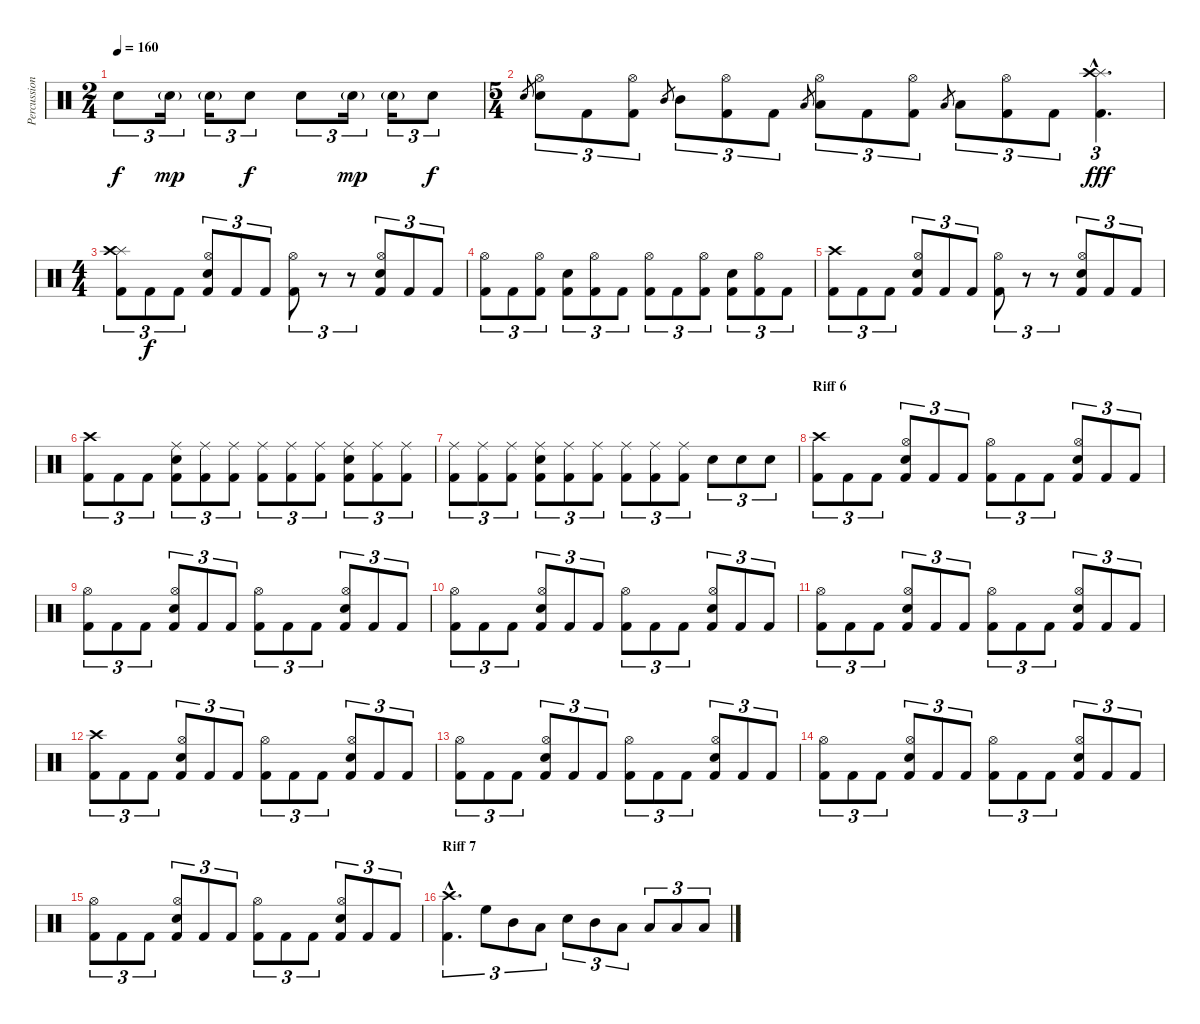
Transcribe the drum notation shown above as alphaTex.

\track ("Percussion" "Percussion") {instrument percussion}
\staff {score}
\articulation defaults
\ts (2 4)
\tempo 160
\clef neutral
\ks c "Electric Snare (hit)".8{tu (3 2) dy f} "Electric Snare (hit)"{g}.16{tu (3 2) dy mp} "Electric Snare (hit)"{g}.16{tu (3 2)} "Electric Snare (hit)".8{tu (3 2) dy f} "Electric Snare (hit)".8{tu (3 2)} "Electric Snare (hit)"{g}.16{tu (3 2) dy mp} "Electric Snare (hit)"{g}.16{tu (3 2)} "Electric Snare (hit)".8{tu (3 2) dy f}
|
\ts (5 4)
"Electric Snare (hit)".8{gr} ("Hi-Hat (open)" "Electric Snare (hit)").8{tu (3 2)} "Kick (hit) 2".8{tu (3 2)} ("Hi-Hat (open)" "Kick (hit) 2").8{tu (3 2)} "Mid Tom (hit)".8{gr} "Mid Tom (hit)".8{tu (3 2)} ("Hi-Hat (open)" "Kick (hit) 2").8{tu (3 2)} "Kick (hit) 2".8{tu (3 2)} "Low Tom (hit)".8{gr} ("Hi-Hat (open)" "Low Tom (hit)").8{tu (3 2)} "Kick (hit) 2".8{tu (3 2)} ("Hi-Hat (open)" "Kick (hit) 2").8{tu (3 2)} "Low Floor Tom (hit)".8{gr} "Low Floor Tom (hit)".8{tu (3 2)} ("Hi-Hat (open)" "Kick (hit) 2").8{tu (3 2)} "Kick (hit) 2".8{tu (3 2)} ("Splash (hit)"{hac} "Crash high (hit)"{hac} "Kick (hit) 2"{hac}).4{d tu (3 2) dy fff} |
\ts (4 4)
("Splash (hit)" "Crash high (hit)" "Kick (hit) 2").8{tu (3 2)} "Kick (hit) 2".8{tu (3 2) dy f} "Kick (hit) 2".8{tu (3 2)} ("Hi-Hat (open)" "Electric Snare (hit)" "Kick (hit) 2").8{tu (3 2)} "Kick (hit) 2".8{tu (3 2)} "Kick (hit) 2".8{tu (3 2)} ("Hi-Hat (open)" "Kick (hit) 2").8{tu (3 2)} r.8{tu (3 2)} r.8{tu (3 2)} ("Hi-Hat (open)" "Electric Snare (hit)" "Kick (hit) 2").8{tu (3 2)} "Kick (hit) 2".8{tu (3 2)} "Kick (hit) 2".8{tu (3 2)} |
("Hi-Hat (open)" "Kick (hit) 2").8{tu (3 2)} "Kick (hit) 2".8{tu (3 2)} ("Hi-Hat (open)" "Kick (hit) 2").8{tu (3 2)} ("Electric Snare (hit)" "Kick (hit) 2").8{tu (3 2)} ("Hi-Hat (open)" "Kick (hit) 2").8{tu (3 2)} "Kick (hit) 2".8{tu (3 2)} ("Hi-Hat (open)" "Kick (hit) 2").8{tu (3 2)} "Kick (hit) 2".8{tu (3 2)} ("Hi-Hat (open)" "Kick (hit) 2").8{tu (3 2)} ("Electric Snare (hit)" "Kick (hit) 2").8{tu (3 2)} ("Hi-Hat (open)" "Kick (hit) 2").8{tu (3 2)} "Kick (hit) 2".8{tu (3 2)} |
("Crash high (hit)" "Kick (hit) 2").8{tu (3 2)} "Kick (hit) 2".8{tu (3 2)} "Kick (hit) 2".8{tu (3 2)} ("Hi-Hat (open)" "Electric Snare (hit)" "Kick (hit) 2").8{tu (3 2)} "Kick (hit) 2".8{tu (3 2)} "Kick (hit) 2".8{tu (3 2)} ("Hi-Hat (open)" "Kick (hit) 2").8{tu (3 2)} r.8{tu (3 2)} r.8{tu (3 2)} ("Hi-Hat (open)" "Electric Snare (hit)" "Kick (hit) 2").8{tu (3 2)} "Kick (hit) 2".8{tu (3 2)} "Kick (hit) 2".8{tu (3 2)} |
("Crash high (hit)" "Kick (hit) 2").8{tu (3 2)} "Kick (hit) 2".8{tu (3 2)} "Kick (hit) 2".8{tu (3 2)} ("Ride (middle)" "Electric Snare (hit)" "Kick (hit) 2").8{tu (3 2)} ("Ride (middle)" "Kick (hit) 2").8{tu (3 2)} ("Ride (middle)" "Kick (hit) 2").8{tu (3 2)} ("Ride (middle)" "Kick (hit) 2").8{tu (3 2)} ("Ride (middle)" "Kick (hit) 2").8{tu (3 2)} ("Ride (middle)" "Kick (hit) 2").8{tu (3 2)} ("Ride (middle)" "Electric Snare (hit)" "Kick (hit) 2").8{tu (3 2)} ("Ride (middle)" "Kick (hit) 2").8{tu (3 2)} ("Ride (middle)" "Kick (hit) 2").8{tu (3 2)} |
("Ride (middle)" "Kick (hit) 2").8{tu (3 2)} ("Ride (middle)" "Kick (hit) 2").8{tu (3 2)} ("Ride (middle)" "Kick (hit) 2").8{tu (3 2)} ("Ride (middle)" "Electric Snare (hit)" "Kick (hit) 2").8{tu (3 2)} ("Ride (middle)" "Kick (hit) 2").8{tu (3 2)} ("Ride (middle)" "Kick (hit) 2").8{tu (3 2)} ("Ride (middle)" "Kick (hit) 2").8{tu (3 2)} ("Ride (middle)" "Kick (hit) 2").8{tu (3 2)} ("Ride (middle)" "Kick (hit) 2").8{tu (3 2)} "Electric Snare (hit)".8{tu (3 2)} "Electric Snare (hit)".8{tu (3 2)} "Electric Snare (hit)".8{tu (3 2)} |
\section ("" "Riff 6")
("Crash high (hit)" "Kick (hit) 2").8{tu (3 2)} "Kick (hit) 2".8{tu (3 2)} "Kick (hit) 2".8{tu (3 2)} ("Hi-Hat (open)" "Electric Snare (hit)" "Kick (hit) 2").8{tu (3 2)} "Kick (hit) 2".8{tu (3 2)} "Kick (hit) 2".8{tu (3 2)} ("Hi-Hat (open)" "Kick (hit) 2").8{tu (3 2)} "Kick (hit) 2".8{tu (3 2)} "Kick (hit) 2".8{tu (3 2)} ("Hi-Hat (open)" "Electric Snare (hit)" "Kick (hit) 2").8{tu (3 2)} "Kick (hit) 2".8{tu (3 2)} "Kick (hit) 2".8{tu (3 2)} |
("Hi-Hat (open)" "Kick (hit) 2").8{tu (3 2)} "Kick (hit) 2".8{tu (3 2)} "Kick (hit) 2".8{tu (3 2)} ("Hi-Hat (open)" "Electric Snare (hit)" "Kick (hit) 2").8{tu (3 2)} "Kick (hit) 2".8{tu (3 2)} "Kick (hit) 2".8{tu (3 2)} ("Hi-Hat (open)" "Kick (hit) 2").8{tu (3 2)} "Kick (hit) 2".8{tu (3 2)} "Kick (hit) 2".8{tu (3 2)} ("Hi-Hat (open)" "Electric Snare (hit)" "Kick (hit) 2").8{tu (3 2)} "Kick (hit) 2".8{tu (3 2)} "Kick (hit) 2".8{tu (3 2)} |
("Hi-Hat (open)" "Kick (hit) 2").8{tu (3 2)} "Kick (hit) 2".8{tu (3 2)} "Kick (hit) 2".8{tu (3 2)} ("Hi-Hat (open)" "Electric Snare (hit)" "Kick (hit) 2").8{tu (3 2)} "Kick (hit) 2".8{tu (3 2)} "Kick (hit) 2".8{tu (3 2)} ("Hi-Hat (open)" "Kick (hit) 2").8{tu (3 2)} "Kick (hit) 2".8{tu (3 2)} "Kick (hit) 2".8{tu (3 2)} ("Hi-Hat (open)" "Electric Snare (hit)" "Kick (hit) 2").8{tu (3 2)} "Kick (hit) 2".8{tu (3 2)} "Kick (hit) 2".8{tu (3 2)} |
("Hi-Hat (open)" "Kick (hit) 2").8{tu (3 2)} "Kick (hit) 2".8{tu (3 2)} "Kick (hit) 2".8{tu (3 2)} ("Hi-Hat (open)" "Electric Snare (hit)" "Kick (hit) 2").8{tu (3 2)} "Kick (hit) 2".8{tu (3 2)} "Kick (hit) 2".8{tu (3 2)} ("Hi-Hat (open)" "Kick (hit) 2").8{tu (3 2)} "Kick (hit) 2".8{tu (3 2)} "Kick (hit) 2".8{tu (3 2)} ("Hi-Hat (open)" "Electric Snare (hit)" "Kick (hit) 2").8{tu (3 2)} "Kick (hit) 2".8{tu (3 2)} "Kick (hit) 2".8{tu (3 2)} |
("Crash high (hit)" "Kick (hit) 2").8{tu (3 2)} "Kick (hit) 2".8{tu (3 2)} "Kick (hit) 2".8{tu (3 2)} ("Hi-Hat (open)" "Electric Snare (hit)" "Kick (hit) 2").8{tu (3 2)} "Kick (hit) 2".8{tu (3 2)} "Kick (hit) 2".8{tu (3 2)} ("Hi-Hat (open)" "Kick (hit) 2").8{tu (3 2)} "Kick (hit) 2".8{tu (3 2)} "Kick (hit) 2".8{tu (3 2)} ("Hi-Hat (open)" "Electric Snare (hit)" "Kick (hit) 2").8{tu (3 2)} "Kick (hit) 2".8{tu (3 2)} "Kick (hit) 2".8{tu (3 2)} |
("Hi-Hat (open)" "Kick (hit) 2").8{tu (3 2)} "Kick (hit) 2".8{tu (3 2)} "Kick (hit) 2".8{tu (3 2)} ("Hi-Hat (open)" "Electric Snare (hit)" "Kick (hit) 2").8{tu (3 2)} "Kick (hit) 2".8{tu (3 2)} "Kick (hit) 2".8{tu (3 2)} ("Hi-Hat (open)" "Kick (hit) 2").8{tu (3 2)} "Kick (hit) 2".8{tu (3 2)} "Kick (hit) 2".8{tu (3 2)} ("Hi-Hat (open)" "Electric Snare (hit)" "Kick (hit) 2").8{tu (3 2)} "Kick (hit) 2".8{tu (3 2)} "Kick (hit) 2".8{tu (3 2)} |
("Hi-Hat (open)" "Kick (hit) 2").8{tu (3 2)} "Kick (hit) 2".8{tu (3 2)} "Kick (hit) 2".8{tu (3 2)} ("Hi-Hat (open)" "Electric Snare (hit)" "Kick (hit) 2").8{tu (3 2)} "Kick (hit) 2".8{tu (3 2)} "Kick (hit) 2".8{tu (3 2)} ("Hi-Hat (open)" "Kick (hit) 2").8{tu (3 2)} "Kick (hit) 2".8{tu (3 2)} "Kick (hit) 2".8{tu (3 2)} ("Hi-Hat (open)" "Electric Snare (hit)" "Kick (hit) 2").8{tu (3 2)} "Kick (hit) 2".8{tu (3 2)} "Kick (hit) 2".8{tu (3 2)} |
("Hi-Hat (open)" "Kick (hit) 2").8{tu (3 2)} "Kick (hit) 2".8{tu (3 2)} "Kick (hit) 2".8{tu (3 2)} ("Hi-Hat (open)" "Electric Snare (hit)" "Kick (hit) 2").8{tu (3 2)} "Kick (hit) 2".8{tu (3 2)} "Kick (hit) 2".8{tu (3 2)} ("Hi-Hat (open)" "Kick (hit) 2").8{tu (3 2)} "Kick (hit) 2".8{tu (3 2)} "Kick (hit) 2".8{tu (3 2)} ("Hi-Hat (open)" "Electric Snare (hit)" "Kick (hit) 2").8{tu (3 2)} "Kick (hit) 2".8{tu (3 2)} "Kick (hit) 2".8{tu (3 2)} |
\section ("" "Riff 7")
("Crash high (hit)"{hac} "Kick (hit) 2"{hac}).4{d tu (3 2)} "High Floor Tom (hit)".8{tu (3 2)} "Mid Tom (hit)".8{tu (3 2)} "Low Tom (hit)".8{tu (3 2)} "Electric Snare (hit)".8{tu (3 2)} "Mid Tom (hit)".8{tu (3 2)} "Low Tom (hit)".8{tu (3 2)} "Low Floor Tom (hit)".8{tu (3 2)} "Low Tom (hit)".8{tu (3 2)} "Low Floor Tom (hit)".8{tu (3 2)}
